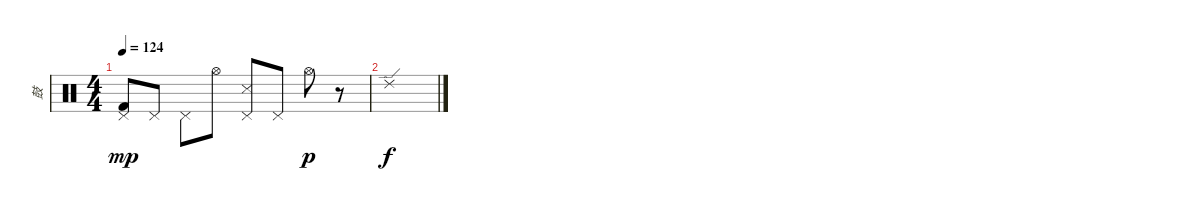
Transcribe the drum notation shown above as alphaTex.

\track ("鼓" "鼓") {instrument percussion}
\staff {score}
\articulation defaults
\ts (4 4)
\tempo 124
\clef neutral
\ks c
("Kick (hit) 2" "Pedal Hi-Hat (hit)").8{dy mp} "Pedal Hi-Hat (hit)".8 "Pedal Hi-Hat (hit)".8 "Hi-Hat (open)".8 ("Snare (side stick) 3" "Pedal Hi-Hat (hit)").8 "Pedal Hi-Hat (hit)".8 "Hi-Hat (open)".8{dy p} r.8 |
"Ride (edge) 2".1{dy f}
